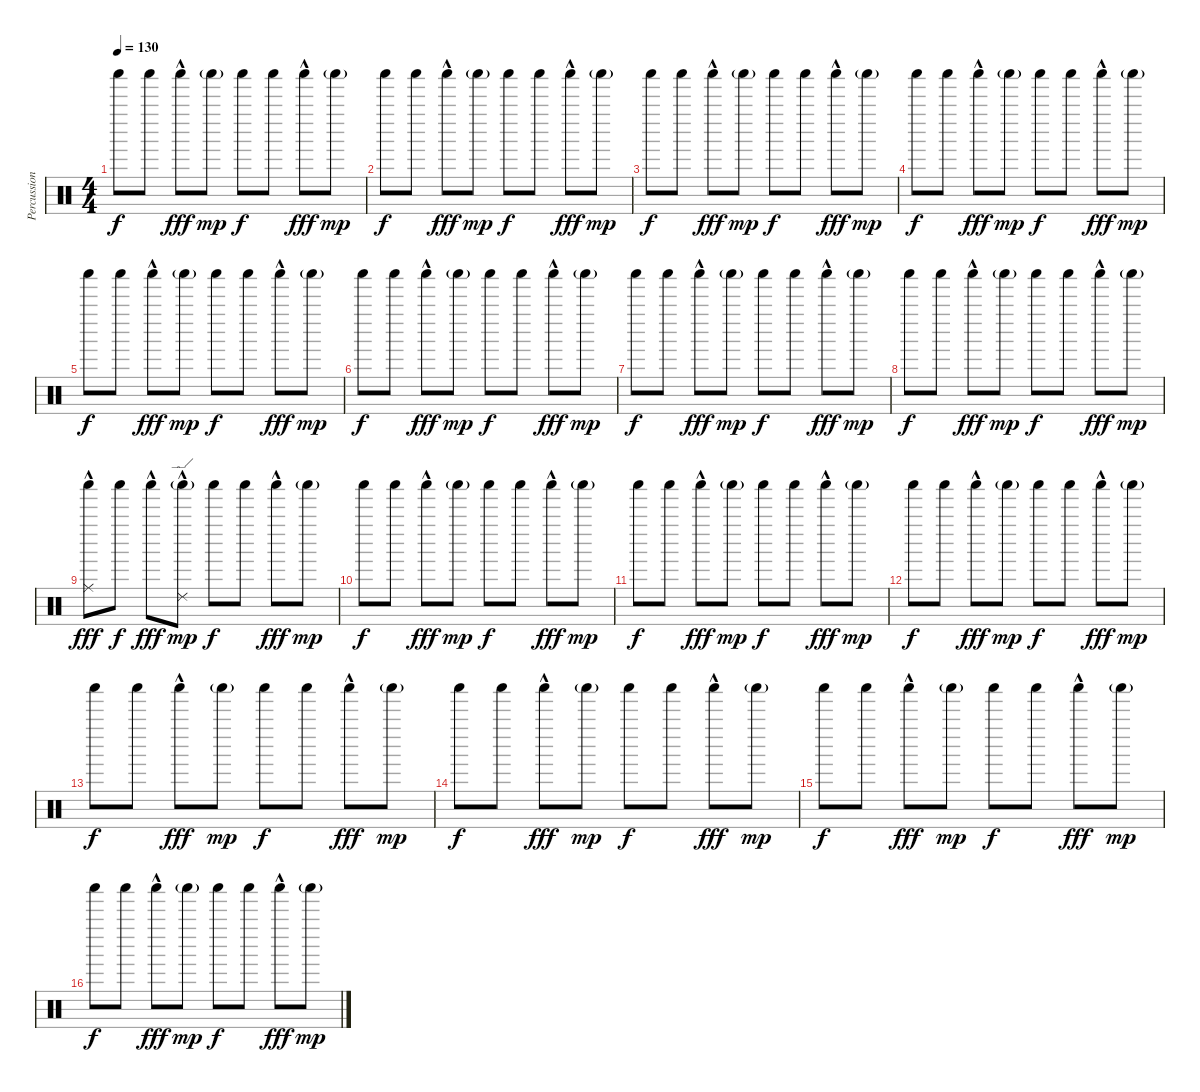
\track ("Percussion" "Percussion") {instrument percussion}
\staff {score}
\articulation defaults
\ts (4 4)
\tempo 130
\clef neutral
\ks c "Shaker (hit)".8{dy f} "Shaker (hit)".8 "Shaker (hit)"{hac}.8{dy fff} "Shaker (hit)"{g}.8{dy mp} "Shaker (hit)".8{dy f} "Shaker (hit)".8 "Shaker (hit)"{hac}.8{dy fff} "Shaker (hit)"{g}.8{dy mp}
|
"Shaker (hit)".8{dy f} "Shaker (hit)".8 "Shaker (hit)"{hac}.8{dy fff} "Shaker (hit)"{g}.8{dy mp} "Shaker (hit)".8{dy f} "Shaker (hit)".8 "Shaker (hit)"{hac}.8{dy fff} "Shaker (hit)"{g}.8{dy mp} |
"Shaker (hit)".8{dy f} "Shaker (hit)".8 "Shaker (hit)"{hac}.8{dy fff} "Shaker (hit)"{g}.8{dy mp} "Shaker (hit)".8{dy f} "Shaker (hit)".8 "Shaker (hit)"{hac}.8{dy fff} "Shaker (hit)"{g}.8{dy mp} |
"Shaker (hit)".8{dy f} "Shaker (hit)".8 "Shaker (hit)"{hac}.8{dy fff} "Shaker (hit)"{g}.8{dy mp} "Shaker (hit)".8{dy f} "Shaker (hit)".8 "Shaker (hit)"{hac}.8{dy fff} "Shaker (hit)"{g}.8{dy mp} |
"Shaker (hit)".8{dy f} "Shaker (hit)".8 "Shaker (hit)"{hac}.8{dy fff} "Shaker (hit)"{g}.8{dy mp} "Shaker (hit)".8{dy f} "Shaker (hit)".8 "Shaker (hit)"{hac}.8{dy fff} "Shaker (hit)"{g}.8{dy mp} |
"Shaker (hit)".8{dy f} "Shaker (hit)".8 "Shaker (hit)"{hac}.8{dy fff} "Shaker (hit)"{g}.8{dy mp} "Shaker (hit)".8{dy f} "Shaker (hit)".8 "Shaker (hit)"{hac}.8{dy fff} "Shaker (hit)"{g}.8{dy mp} |
"Shaker (hit)".8{dy f} "Shaker (hit)".8 "Shaker (hit)"{hac}.8{dy fff} "Shaker (hit)"{g}.8{dy mp} "Shaker (hit)".8{dy f} "Shaker (hit)".8 "Shaker (hit)"{hac}.8{dy fff} "Shaker (hit)"{g}.8{dy mp} |
"Shaker (hit)".8{dy f} "Shaker (hit)".8 "Shaker (hit)"{hac}.8{dy fff} "Shaker (hit)"{g}.8{dy mp} "Shaker (hit)".8{dy f} "Shaker (hit)".8 "Shaker (hit)"{hac}.8{dy fff} "Shaker (hit)"{g}.8{dy mp} |
("Ride (middle)"{hac} "Shaker (hit)").8{dy fff} "Shaker (hit)".8{dy f} "Shaker (hit)"{hac}.8{dy fff} ("Ride (edge) 2"{hac} "Shaker (hit)"{g}).8{dy mp} "Shaker (hit)".8{dy f} "Shaker (hit)".8 "Shaker (hit)"{hac}.8{dy fff} "Shaker (hit)"{g}.8{dy mp} |
"Shaker (hit)".8{dy f} "Shaker (hit)".8 "Shaker (hit)"{hac}.8{dy fff} "Shaker (hit)"{g}.8{dy mp} "Shaker (hit)".8{dy f} "Shaker (hit)".8 "Shaker (hit)"{hac}.8{dy fff} "Shaker (hit)"{g}.8{dy mp} |
"Shaker (hit)".8{dy f} "Shaker (hit)".8 "Shaker (hit)"{hac}.8{dy fff} "Shaker (hit)"{g}.8{dy mp} "Shaker (hit)".8{dy f} "Shaker (hit)".8 "Shaker (hit)"{hac}.8{dy fff} "Shaker (hit)"{g}.8{dy mp} |
"Shaker (hit)".8{dy f} "Shaker (hit)".8 "Shaker (hit)"{hac}.8{dy fff} "Shaker (hit)"{g}.8{dy mp} "Shaker (hit)".8{dy f} "Shaker (hit)".8 "Shaker (hit)"{hac}.8{dy fff} "Shaker (hit)"{g}.8{dy mp} |
"Shaker (hit)".8{dy f} "Shaker (hit)".8 "Shaker (hit)"{hac}.8{dy fff} "Shaker (hit)"{g}.8{dy mp} "Shaker (hit)".8{dy f} "Shaker (hit)".8 "Shaker (hit)"{hac}.8{dy fff} "Shaker (hit)"{g}.8{dy mp} |
"Shaker (hit)".8{dy f} "Shaker (hit)".8 "Shaker (hit)"{hac}.8{dy fff} "Shaker (hit)"{g}.8{dy mp} "Shaker (hit)".8{dy f} "Shaker (hit)".8 "Shaker (hit)"{hac}.8{dy fff} "Shaker (hit)"{g}.8{dy mp} |
"Shaker (hit)".8{dy f} "Shaker (hit)".8 "Shaker (hit)"{hac}.8{dy fff} "Shaker (hit)"{g}.8{dy mp} "Shaker (hit)".8{dy f} "Shaker (hit)".8 "Shaker (hit)"{hac}.8{dy fff} "Shaker (hit)"{g}.8{dy mp} |
"Shaker (hit)".8{dy f} "Shaker (hit)".8 "Shaker (hit)"{hac}.8{dy fff} "Shaker (hit)"{g}.8{dy mp} "Shaker (hit)".8{dy f} "Shaker (hit)".8 "Shaker (hit)"{hac}.8{dy fff} "Shaker (hit)"{g}.8{dy mp}
